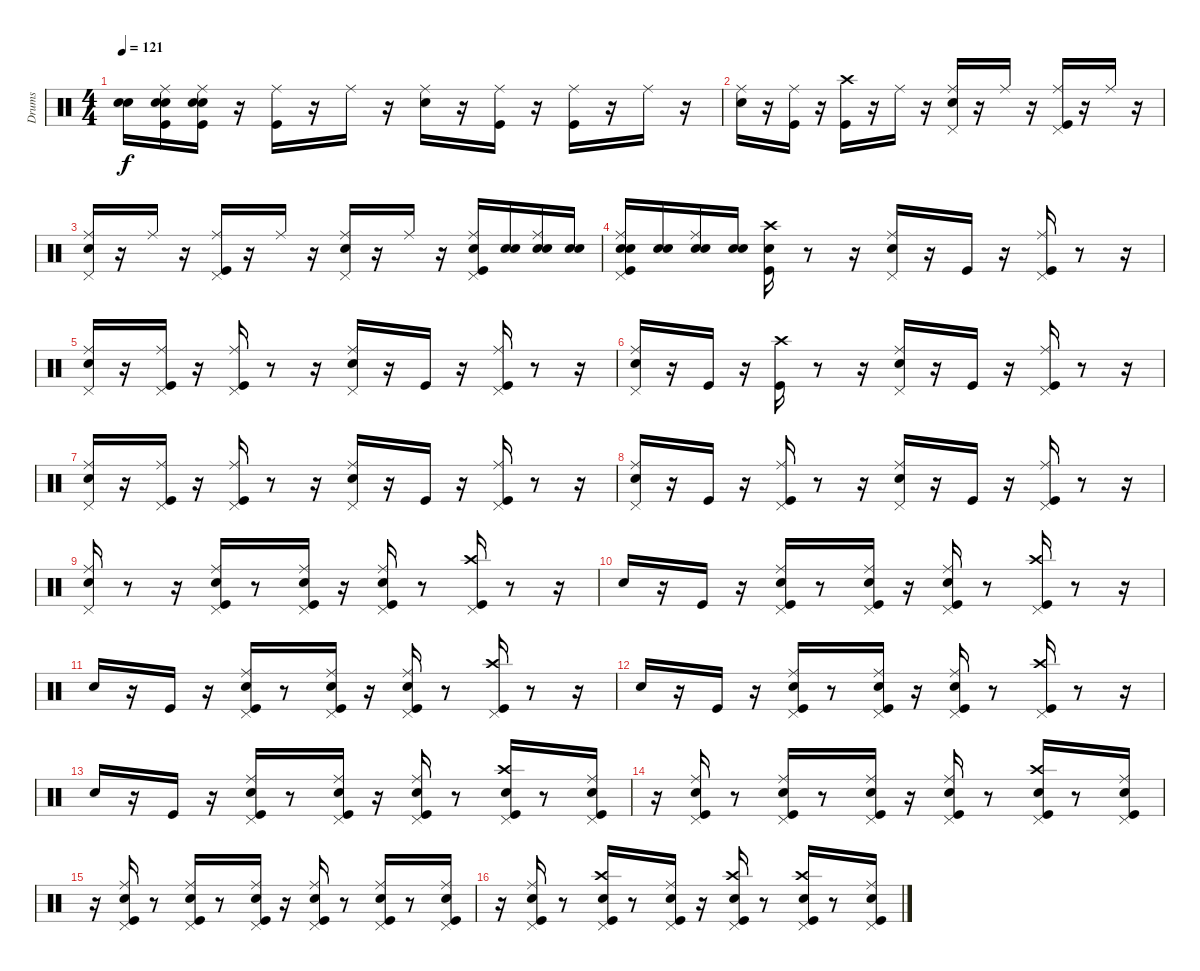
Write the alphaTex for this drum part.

\track ("Drums" "Drums") {instrument percussion}
\staff {score}
\articulation defaults
\ts (4 4)
\tempo 121
\clef neutral
\ks c
("Snare (hit)" "Snare (hit) 2").16{dy f} ("Snare (hit)" "Kick (hit)" "Ride (middle)" "Snare (hit) 2").16 ("Snare (hit)" "Kick (hit)" "Ride (middle)" "Snare (hit) 2").16 r.16 ("Ride (middle)" "Kick (hit)").16 r.16 "Ride (middle)".16 r.16 ("Snare (hit) 2" "Ride (middle)").16 r.16 ("Kick (hit)" "Ride (middle)").16 r.16 ("Ride (middle)" "Kick (hit)").16 r.16 "Ride (middle)".16 r.16 |
("Ride (middle)" "Snare (hit) 2").16 r.16 ("Kick (hit)" "Ride (middle)").16 r.16 ("Kick (hit)" "Crash high (hit)").16 r.16 "Ride (middle)".16 r.16 ("Snare (hit) 2" "Ride (middle)" "Pedal Hi-Hat (hit)").16 r.16 "Ride (middle)".16 r.16 ("Kick (hit)" "Ride (middle)" "Pedal Hi-Hat (hit)").16 r.16 "Ride (middle)".16 r.16 |
("Snare (hit) 2" "Ride (middle)" "Pedal Hi-Hat (hit)").16 r.16 "Ride (middle)".16 r.16 ("Pedal Hi-Hat (hit)" "Kick (hit)" "Ride (middle)").16 r.16 "Ride (middle)".16 r.16 ("Snare (hit) 2" "Ride (middle)" "Pedal Hi-Hat (hit)").16 r.16 "Ride (middle)".16 r.16 ("Kick (hit)" "Snare (hit) 2" "Ride (middle)" "Pedal Hi-Hat (hit)").16 ("Snare (hit)" "Snare (hit) 2").16 ("Snare (hit)" "Snare (hit) 2" "Ride (middle)").16 ("Snare (hit)" "Snare (hit) 2").16 |
("Snare (hit)" "Kick (hit)" "Pedal Hi-Hat (hit)" "Snare (hit) 2" "Ride (middle)").16 ("Snare (hit)" "Snare (hit) 2").16 ("Snare (hit)" "Snare (hit) 2" "Ride (middle)").16 ("Snare (hit)" "Snare (hit) 2").16 ("Snare (hit)" "Crash high (hit)" "Kick (hit)").16 r.8 r.16 ("Snare (hit) 2" "Ride (middle)" "Pedal Hi-Hat (hit)").16 r.16 "Kick (hit)".16 r.16 ("Kick (hit)" "Ride (middle)" "Pedal Hi-Hat (hit)").16 r.8 r.16 |
("Snare (hit) 2" "Ride (middle)" "Pedal Hi-Hat (hit)").16 r.16 ("Kick (hit)" "Pedal Hi-Hat (hit)" "Ride (middle)").16 r.16 ("Kick (hit)" "Ride (middle)" "Pedal Hi-Hat (hit)").16 r.8 r.16 ("Snare (hit) 2" "Ride (middle)" "Pedal Hi-Hat (hit)").16 r.16 "Kick (hit)".16 r.16 ("Kick (hit)" "Pedal Hi-Hat (hit)" "Ride (middle)").16 r.8 r.16 |
("Snare (hit) 2" "Pedal Hi-Hat (hit)" "Ride (middle)").16 r.16 "Kick (hit)".16 r.16 ("Crash high (hit)" "Kick (hit)").16 r.8 r.16 ("Snare (hit) 2" "Ride (middle)" "Pedal Hi-Hat (hit)").16 r.16 "Kick (hit)".16 r.16 ("Kick (hit)" "Ride (middle)" "Pedal Hi-Hat (hit)").16 r.8 r.16 |
("Snare (hit) 2" "Pedal Hi-Hat (hit)" "Ride (middle)").16 r.16 ("Kick (hit)" "Pedal Hi-Hat (hit)" "Ride (middle)").16 r.16 ("Pedal Hi-Hat (hit)" "Kick (hit)" "Ride (middle)").16 r.8 r.16 ("Snare (hit) 2" "Ride (middle)" "Pedal Hi-Hat (hit)").16 r.16 "Kick (hit)".16 r.16 ("Kick (hit)" "Pedal Hi-Hat (hit)" "Ride (middle)").16 r.8 r.16 |
("Snare (hit) 2" "Pedal Hi-Hat (hit)" "Ride (middle)").16 r.16 "Kick (hit)".16 r.16 ("Pedal Hi-Hat (hit)" "Kick (hit)" "Ride (middle)").16 r.8 r.16 ("Snare (hit) 2" "Ride (middle)" "Pedal Hi-Hat (hit)").16 r.16 "Kick (hit)".16 r.16 ("Kick (hit)" "Pedal Hi-Hat (hit)" "Ride (middle)").16 r.8 r.16 |
("Snare (hit) 2" "Pedal Hi-Hat (hit)" "Ride (middle)").16 r.8 r.16 ("Snare (hit) 2" "Kick (hit)" "Ride (middle)" "Pedal Hi-Hat (hit)").16 r.8 ("Kick (hit)" "Snare (hit) 2" "Pedal Hi-Hat (hit)" "Ride (middle)").16 r.16 ("Kick (hit)" "Pedal Hi-Hat (hit)" "Snare (hit) 2" "Ride (middle)").16 r.8 ("Kick (hit)" "Crash high (hit)" "Pedal Hi-Hat (hit)").16 r.8 r.16 |
"Snare (hit) 2".16 r.16 "Kick (hit)".16 r.16 ("Kick (hit)" "Pedal Hi-Hat (hit)" "Snare (hit) 2" "Ride (middle)").16 r.8 ("Kick (hit)" "Snare (hit) 2" "Pedal Hi-Hat (hit)" "Ride (middle)").16 r.16 ("Kick (hit)" "Pedal Hi-Hat (hit)" "Snare (hit) 2" "Ride (middle)").16 r.8 ("Kick (hit)" "Crash high (hit)" "Pedal Hi-Hat (hit)").16 r.8 r.16 |
"Snare (hit) 2".16 r.16 "Kick (hit)".16 r.16 ("Snare (hit) 2" "Kick (hit)" "Ride (middle)" "Pedal Hi-Hat (hit)").16 r.8 ("Kick (hit)" "Snare (hit) 2" "Pedal Hi-Hat (hit)" "Ride (middle)").16 r.16 ("Kick (hit)" "Pedal Hi-Hat (hit)" "Snare (hit) 2" "Ride (middle)").16 r.8 ("Kick (hit)" "Crash high (hit)" "Pedal Hi-Hat (hit)").16 r.8 r.16 |
"Snare (hit) 2".16 r.16 "Kick (hit)".16 r.16 ("Snare (hit) 2" "Kick (hit)" "Ride (middle)" "Pedal Hi-Hat (hit)").16 r.8 ("Kick (hit)" "Snare (hit) 2" "Pedal Hi-Hat (hit)" "Ride (middle)").16 r.16 ("Kick (hit)" "Pedal Hi-Hat (hit)" "Snare (hit) 2" "Ride (middle)").16 r.8 ("Kick (hit)" "Crash high (hit)" "Pedal Hi-Hat (hit)").16 r.8 r.16 |
"Snare (hit) 2".16 r.16 "Kick (hit)".16 r.16 ("Snare (hit) 2" "Kick (hit)" "Ride (middle)" "Pedal Hi-Hat (hit)").16 r.8 ("Kick (hit)" "Snare (hit) 2" "Pedal Hi-Hat (hit)" "Ride (middle)").16 r.16 ("Snare (hit) 2" "Kick (hit)" "Ride (middle)" "Pedal Hi-Hat (hit)").16 r.8 ("Kick (hit)" "Pedal Hi-Hat (hit)" "Snare (hit) 2" "Crash high (hit)").16 r.8 ("Kick (hit)" "Snare (hit) 2" "Pedal Hi-Hat (hit)" "Ride (middle)").16 |
r.16 ("Kick (hit)" "Pedal Hi-Hat (hit)" "Snare (hit) 2" "Ride (middle)").16 r.8 ("Snare (hit) 2" "Kick (hit)" "Ride (middle)" "Pedal Hi-Hat (hit)").16 r.8 ("Kick (hit)" "Snare (hit) 2" "Pedal Hi-Hat (hit)" "Ride (middle)").16 r.16 ("Kick (hit)" "Pedal Hi-Hat (hit)" "Snare (hit) 2" "Ride (middle)").16 r.8 ("Kick (hit)" "Pedal Hi-Hat (hit)" "Snare (hit) 2" "Crash high (hit)").16 r.8 ("Kick (hit)" "Snare (hit) 2" "Pedal Hi-Hat (hit)" "Ride (middle)").16 |
r.16 ("Kick (hit)" "Pedal Hi-Hat (hit)" "Snare (hit) 2" "Ride (middle)").16 r.8 ("Snare (hit) 2" "Kick (hit)" "Ride (middle)" "Pedal Hi-Hat (hit)").16 r.8 ("Kick (hit)" "Snare (hit) 2" "Pedal Hi-Hat (hit)" "Ride (middle)").16 r.16 ("Kick (hit)" "Pedal Hi-Hat (hit)" "Snare (hit) 2" "Ride (middle)").16 r.8 ("Kick (hit)" "Snare (hit) 2" "Ride (middle)" "Pedal Hi-Hat (hit)").16 r.8 ("Kick (hit)" "Snare (hit) 2" "Pedal Hi-Hat (hit)" "Ride (middle)").16 |
r.16 ("Kick (hit)" "Pedal Hi-Hat (hit)" "Snare (hit) 2" "Ride (middle)").16 r.8 ("Snare (hit) 2" "Kick (hit)" "Crash high (hit)" "Pedal Hi-Hat (hit)").16 r.8 ("Kick (hit)" "Snare (hit) 2" "Pedal Hi-Hat (hit)" "Ride (middle)").16 r.16 ("Kick (hit)" "Pedal Hi-Hat (hit)" "Snare (hit) 2" "Crash high (hit)").16 r.8 ("Kick (hit)" "Pedal Hi-Hat (hit)" "Snare (hit) 2" "Crash high (hit)").16 r.8 ("Kick (hit)" "Snare (hit) 2" "Pedal Hi-Hat (hit)" "Ride (middle)").16
